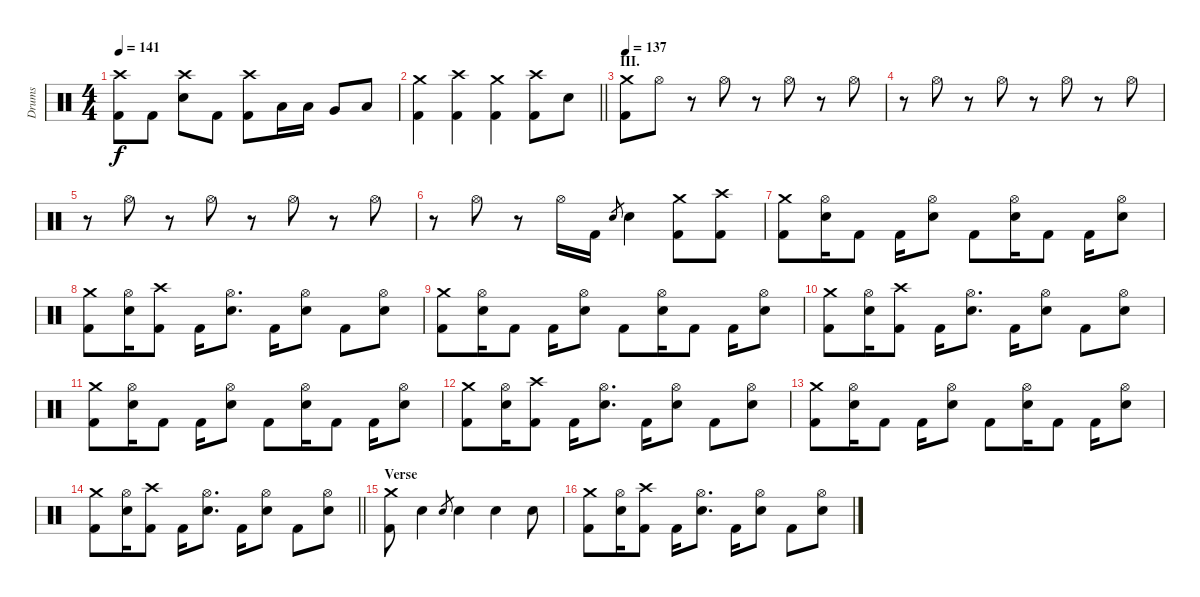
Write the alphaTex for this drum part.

\track ("Drums" "Drums") {instrument percussion}
\staff {score}
\articulation defaults
\ts (4 4)
\tempo 141
\clef neutral
\ks c
("Crash high (hit)" "Kick (hit) 2").8{dy f} "Kick (hit) 2".8 ("Crash high (hit)" "Electric Snare (hit)").8 "Kick (hit) 2".8 ("Crash high (hit)" "Kick (hit) 2").8 "Low Tom (hit)".16 "Low Tom (hit)".16 "Very Low Tom (hit)".8 "Low Floor Tom (hit)".8 |
\barLineRight lightlight
("Crash medium (hit)" "Kick (hit) 2").4 ("Crash high (hit)" "Kick (hit) 2").4 ("Crash medium (hit)" "Kick (hit) 2").4 ("Crash high (hit)" "Kick (hit) 2").8 "Electric Snare (hit)".8 |
\section ("" "III.")
\tempo 137
("Crash medium (hit)" "Kick (hit) 2").8 "Hi-Hat (open)".8 r.8 "Hi-Hat (open)".8 r.8 "Hi-Hat (open)".8 r.8 "Hi-Hat (open)".8 |
r.8 "Hi-Hat (open)".8 r.8 "Hi-Hat (open)".8 r.8 "Hi-Hat (open)".8 r.8 "Hi-Hat (open)".8 |
r.8 "Hi-Hat (open)".8 r.8 "Hi-Hat (open)".8 r.8 "Hi-Hat (open)".8 r.8 "Hi-Hat (open)".8 |
r.8 "Hi-Hat (open)".8 r.8 "Hi-Hat (open)".16 "Kick (hit) 2".16 "Electric Snare (hit)".8{gr} "Electric Snare (hit)".4 ("Crash medium (hit)" "Kick (hit) 2").8 ("Crash high (hit)" "Kick (hit) 2").8 |
("Crash medium (hit)" "Kick (hit) 2").8 ("Hi-Hat (open)" "Electric Snare (hit)").16 "Kick (hit) 2".8 "Kick (hit) 2".16 ("Hi-Hat (open)" "Electric Snare (hit)").8 "Kick (hit) 2".8 ("Hi-Hat (open)" "Electric Snare (hit)").16 "Kick (hit) 2".8 "Kick (hit) 2".16 ("Hi-Hat (open)" "Electric Snare (hit)").8 |
("Crash medium (hit)" "Kick (hit) 2").8 ("Hi-Hat (open)" "Electric Snare (hit)").16 ("Crash high (hit)" "Kick (hit) 2").8 "Kick (hit) 2".16 ("Hi-Hat (open)" "Electric Snare (hit)").8{d} "Kick (hit) 2".16 ("Hi-Hat (open)" "Electric Snare (hit)").8 "Kick (hit) 2".8 ("Hi-Hat (open)" "Electric Snare (hit)").8 |
("Crash medium (hit)" "Kick (hit) 2").8 ("Hi-Hat (open)" "Electric Snare (hit)").16 "Kick (hit) 2".8 "Kick (hit) 2".16 ("Hi-Hat (open)" "Electric Snare (hit)").8 "Kick (hit) 2".8 ("Hi-Hat (open)" "Electric Snare (hit)").16 "Kick (hit) 2".8 "Kick (hit) 2".16 ("Hi-Hat (open)" "Electric Snare (hit)").8 |
("Crash medium (hit)" "Kick (hit) 2").8 ("Hi-Hat (open)" "Electric Snare (hit)").16 ("Crash high (hit)" "Kick (hit) 2").8 "Kick (hit) 2".16 ("Hi-Hat (open)" "Electric Snare (hit)").8{d} "Kick (hit) 2".16 ("Hi-Hat (open)" "Electric Snare (hit)").8 "Kick (hit) 2".8 ("Hi-Hat (open)" "Electric Snare (hit)").8 |
("Crash medium (hit)" "Kick (hit) 2").8 ("Hi-Hat (open)" "Electric Snare (hit)").16 "Kick (hit) 2".8 "Kick (hit) 2".16 ("Hi-Hat (open)" "Electric Snare (hit)").8 "Kick (hit) 2".8 ("Hi-Hat (open)" "Electric Snare (hit)").16 "Kick (hit) 2".8 "Kick (hit) 2".16 ("Hi-Hat (open)" "Electric Snare (hit)").8 |
("Crash medium (hit)" "Kick (hit) 2").8 ("Hi-Hat (open)" "Electric Snare (hit)").16 ("Crash high (hit)" "Kick (hit) 2").8 "Kick (hit) 2".16 ("Hi-Hat (open)" "Electric Snare (hit)").8{d} "Kick (hit) 2".16 ("Hi-Hat (open)" "Electric Snare (hit)").8 "Kick (hit) 2".8 ("Hi-Hat (open)" "Electric Snare (hit)").8 |
("Crash medium (hit)" "Kick (hit) 2").8 ("Hi-Hat (open)" "Electric Snare (hit)").16 "Kick (hit) 2".8 "Kick (hit) 2".16 ("Hi-Hat (open)" "Electric Snare (hit)").8 "Kick (hit) 2".8 ("Hi-Hat (open)" "Electric Snare (hit)").16 "Kick (hit) 2".8 "Kick (hit) 2".16 ("Hi-Hat (open)" "Electric Snare (hit)").8 |
\barLineRight lightlight
("Crash medium (hit)" "Kick (hit) 2").8 ("Hi-Hat (open)" "Electric Snare (hit)").16 ("Crash high (hit)" "Kick (hit) 2").8 "Kick (hit) 2".16 ("Hi-Hat (open)" "Electric Snare (hit)").8{d} "Kick (hit) 2".16 ("Hi-Hat (open)" "Electric Snare (hit)").8 "Kick (hit) 2".8 ("Hi-Hat (open)" "Electric Snare (hit)").8 |
\section ("" "Verse")
("Crash medium (hit)" "Kick (hit) 2").8 "Electric Snare (hit)".4 "Electric Snare (hit)".8{gr} "Electric Snare (hit)".4 "Electric Snare (hit)".4 "Electric Snare (hit)".8 |
("Crash medium (hit)" "Kick (hit) 2").8 ("Hi-Hat (open)" "Electric Snare (hit)").16 ("Crash high (hit)" "Kick (hit) 2").8 "Kick (hit) 2".16 ("Hi-Hat (open)" "Electric Snare (hit)").8{d} "Kick (hit) 2".16 ("Hi-Hat (open)" "Electric Snare (hit)").8 "Kick (hit) 2".8 ("Hi-Hat (open)" "Electric Snare (hit)").8
